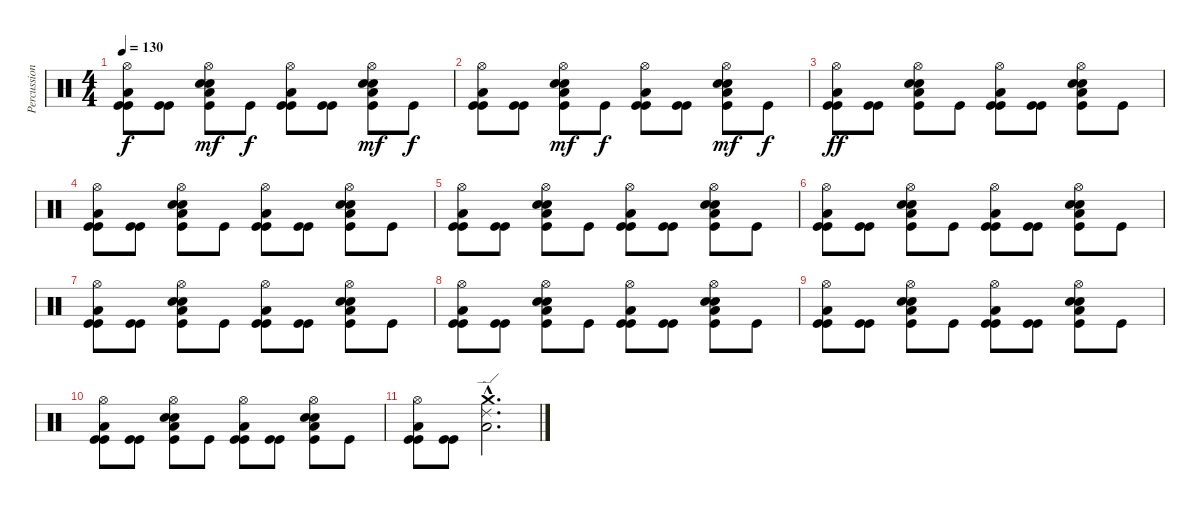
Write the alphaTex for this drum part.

\track ("Percussion" "Percussion") {instrument percussion}
\staff {score}
\articulation defaults
\ts (4 4)
\tempo 130
\clef neutral
\ks c
("Hi-Hat (open)" "Kick (hit)" "Kick (hit)" "Low Floor Tom (hit)").8{dy f} ("Kick (hit)" "Kick (hit)").8 ("Hi-Hat (open)" "Snare (hit) 2" "Snare (hit) 2" "Kick (hit)" "Low Floor Tom (hit)").8{dy mf} "Kick (hit)".8{dy f} ("Hi-Hat (open)" "Kick (hit)" "Kick (hit)" "Low Floor Tom (hit)").8 ("Kick (hit)" "Kick (hit)").8 ("Hi-Hat (open)" "Snare (hit) 2" "Snare (hit) 2" "Kick (hit)" "Low Floor Tom (hit)").8{dy mf} "Kick (hit)".8{dy f} |
("Hi-Hat (open)" "Kick (hit)" "Kick (hit)" "Low Floor Tom (hit)").8 ("Kick (hit)" "Kick (hit)").8 ("Hi-Hat (open)" "Snare (hit) 2" "Snare (hit) 2" "Kick (hit)" "Low Floor Tom (hit)").8{dy mf} "Kick (hit)".8{dy f} ("Hi-Hat (open)" "Kick (hit)" "Kick (hit)" "Low Floor Tom (hit)").8 ("Kick (hit)" "Kick (hit)").8 ("Hi-Hat (open)" "Snare (hit) 2" "Snare (hit) 2" "Kick (hit)" "Low Floor Tom (hit)").8{dy mf} "Kick (hit)".8{dy f} |
("Hi-Hat (open)" "Kick (hit)" "Kick (hit)" "Low Floor Tom (hit)").8{dy ff} ("Kick (hit)" "Kick (hit)").8 ("Hi-Hat (open)" "Snare (hit) 2" "Snare (hit) 2" "Kick (hit)" "Low Floor Tom (hit)").8 "Kick (hit)".8 ("Hi-Hat (open)" "Kick (hit)" "Kick (hit)" "Low Floor Tom (hit)").8 ("Kick (hit)" "Kick (hit)").8 ("Hi-Hat (open)" "Snare (hit) 2" "Snare (hit) 2" "Kick (hit)" "Low Floor Tom (hit)").8 "Kick (hit)".8 |
("Hi-Hat (open)" "Kick (hit)" "Kick (hit)" "Low Floor Tom (hit)").8 ("Kick (hit)" "Kick (hit)").8 ("Hi-Hat (open)" "Snare (hit) 2" "Snare (hit) 2" "Kick (hit)" "Low Floor Tom (hit)").8 "Kick (hit)".8 ("Hi-Hat (open)" "Kick (hit)" "Kick (hit)" "Low Floor Tom (hit)").8 ("Kick (hit)" "Kick (hit)").8 ("Hi-Hat (open)" "Snare (hit) 2" "Snare (hit) 2" "Kick (hit)" "Low Floor Tom (hit)").8 "Kick (hit)".8 |
("Hi-Hat (open)" "Kick (hit)" "Kick (hit)" "Low Floor Tom (hit)").8 ("Kick (hit)" "Kick (hit)").8 ("Hi-Hat (open)" "Snare (hit) 2" "Snare (hit) 2" "Kick (hit)" "Low Floor Tom (hit)").8 "Kick (hit)".8 ("Hi-Hat (open)" "Kick (hit)" "Kick (hit)" "Low Floor Tom (hit)").8 ("Kick (hit)" "Kick (hit)").8 ("Hi-Hat (open)" "Snare (hit) 2" "Snare (hit) 2" "Kick (hit)" "Low Floor Tom (hit)").8 "Kick (hit)".8 |
("Hi-Hat (open)" "Kick (hit)" "Kick (hit)" "Low Floor Tom (hit)").8 ("Kick (hit)" "Kick (hit)").8 ("Hi-Hat (open)" "Snare (hit) 2" "Snare (hit) 2" "Kick (hit)" "Low Floor Tom (hit)").8 "Kick (hit)".8 ("Hi-Hat (open)" "Kick (hit)" "Kick (hit)" "Low Floor Tom (hit)").8 ("Kick (hit)" "Kick (hit)").8 ("Hi-Hat (open)" "Snare (hit) 2" "Snare (hit) 2" "Kick (hit)" "Low Floor Tom (hit)").8 "Kick (hit)".8 |
("Hi-Hat (open)" "Kick (hit)" "Kick (hit)" "Low Floor Tom (hit)").8 ("Kick (hit)" "Kick (hit)").8 ("Hi-Hat (open)" "Snare (hit) 2" "Snare (hit) 2" "Kick (hit)" "Low Floor Tom (hit)").8 "Kick (hit)".8 ("Hi-Hat (open)" "Kick (hit)" "Kick (hit)" "Low Floor Tom (hit)").8 ("Kick (hit)" "Kick (hit)").8 ("Hi-Hat (open)" "Snare (hit) 2" "Snare (hit) 2" "Kick (hit)" "Low Floor Tom (hit)").8 "Kick (hit)".8 |
("Hi-Hat (open)" "Kick (hit)" "Kick (hit)" "Low Floor Tom (hit)").8 ("Kick (hit)" "Kick (hit)").8 ("Hi-Hat (open)" "Snare (hit) 2" "Snare (hit) 2" "Kick (hit)" "Low Floor Tom (hit)").8 "Kick (hit)".8 ("Hi-Hat (open)" "Kick (hit)" "Kick (hit)" "Low Floor Tom (hit)").8 ("Kick (hit)" "Kick (hit)").8 ("Hi-Hat (open)" "Snare (hit) 2" "Snare (hit) 2" "Kick (hit)" "Low Floor Tom (hit)").8 "Kick (hit)".8 |
("Hi-Hat (open)" "Kick (hit)" "Kick (hit)" "Low Floor Tom (hit)").8 ("Kick (hit)" "Kick (hit)").8 ("Hi-Hat (open)" "Snare (hit) 2" "Snare (hit) 2" "Kick (hit)" "Low Floor Tom (hit)").8 "Kick (hit)".8 ("Hi-Hat (open)" "Kick (hit)" "Kick (hit)" "Low Floor Tom (hit)").8 ("Kick (hit)" "Kick (hit)").8 ("Hi-Hat (open)" "Snare (hit) 2" "Snare (hit) 2" "Kick (hit)" "Low Floor Tom (hit)").8 "Kick (hit)".8 |
("Hi-Hat (open)" "Kick (hit)" "Kick (hit)" "Low Floor Tom (hit)").8 ("Kick (hit)" "Kick (hit)").8 ("Hi-Hat (open)" "Snare (hit) 2" "Snare (hit) 2" "Kick (hit)" "Low Floor Tom (hit)").8 "Kick (hit)".8 ("Hi-Hat (open)" "Kick (hit)" "Kick (hit)" "Low Floor Tom (hit)").8 ("Kick (hit)" "Kick (hit)").8 ("Hi-Hat (open)" "Snare (hit) 2" "Snare (hit) 2" "Kick (hit)" "Low Floor Tom (hit)").8 "Kick (hit)".8 |
("Hi-Hat (open)" "Kick (hit)" "Kick (hit)" "Low Floor Tom (hit)").8 ("Kick (hit)" "Kick (hit)").8 ("Crash medium (hit)"{hac} "Ride (edge) 2"{hac} "Low Floor Tom (hit)"{hac}).2{d}
